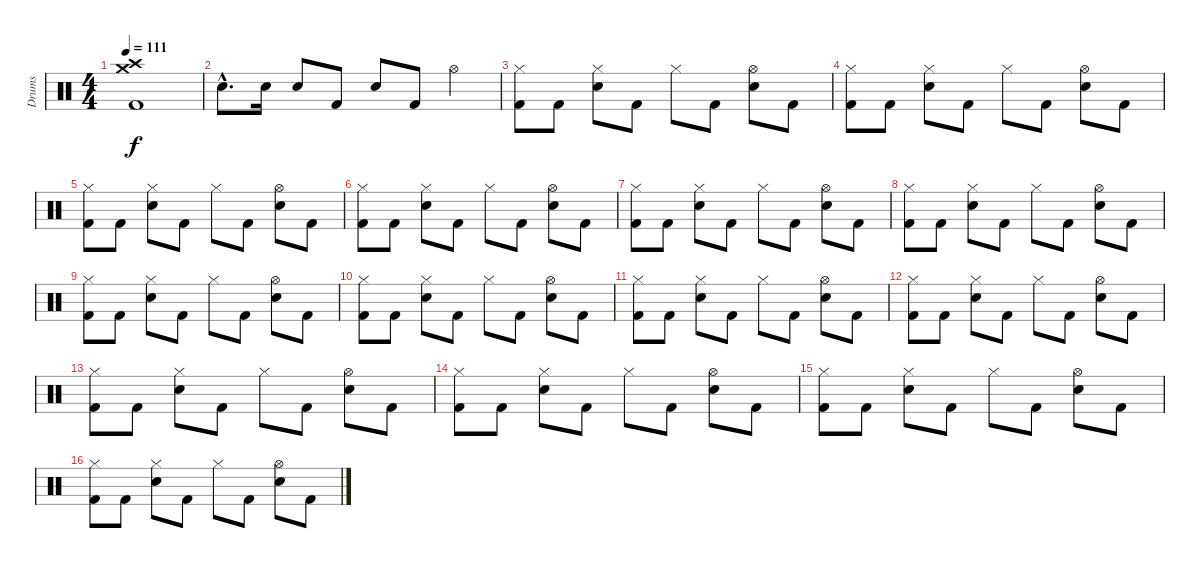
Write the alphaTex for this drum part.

\track ("Drums" "Drums") {instrument percussion}
\staff {score}
\articulation defaults
\ts (4 4)
\tempo 111
\clef neutral
\ks c
("Crash high (hit)" "Crash medium (hit)" "Kick (hit) 2").1{dy f} |
"Snare (hit) 2"{hac}.8{d} "Snare (hit) 2".16 "Snare (hit) 2".8 "Kick (hit) 2".8 "Snare (hit) 2".8 "Kick (hit) 2".8 "Hi-Hat (open)".4 |
("Hi-Hat (closed)" "Kick (hit) 2").8 "Kick (hit) 2".8 ("Hi-Hat (closed)" "Snare (hit) 2").8 "Kick (hit) 2".8 "Hi-Hat (closed)".8 "Kick (hit) 2".8 ("Hi-Hat (open)" "Snare (hit) 2").8 "Kick (hit) 2".8 |
("Hi-Hat (closed)" "Kick (hit) 2").8 "Kick (hit) 2".8 ("Hi-Hat (closed)" "Snare (hit) 2").8 "Kick (hit) 2".8 "Hi-Hat (closed)".8 "Kick (hit) 2".8 ("Hi-Hat (open)" "Snare (hit) 2").8 "Kick (hit) 2".8 |
("Hi-Hat (closed)" "Kick (hit) 2").8 "Kick (hit) 2".8 ("Hi-Hat (closed)" "Snare (hit) 2").8 "Kick (hit) 2".8 "Hi-Hat (closed)".8 "Kick (hit) 2".8 ("Hi-Hat (open)" "Snare (hit) 2").8 "Kick (hit) 2".8 |
("Hi-Hat (closed)" "Kick (hit) 2").8 "Kick (hit) 2".8 ("Hi-Hat (closed)" "Snare (hit) 2").8 "Kick (hit) 2".8 "Hi-Hat (closed)".8 "Kick (hit) 2".8 ("Hi-Hat (open)" "Snare (hit) 2").8 "Kick (hit) 2".8 |
("Hi-Hat (closed)" "Kick (hit) 2").8 "Kick (hit) 2".8 ("Hi-Hat (closed)" "Snare (hit) 2").8 "Kick (hit) 2".8 "Hi-Hat (closed)".8 "Kick (hit) 2".8 ("Hi-Hat (open)" "Snare (hit) 2").8 "Kick (hit) 2".8 |
("Hi-Hat (closed)" "Kick (hit) 2").8 "Kick (hit) 2".8 ("Hi-Hat (closed)" "Snare (hit) 2").8 "Kick (hit) 2".8 "Hi-Hat (closed)".8 "Kick (hit) 2".8 ("Hi-Hat (open)" "Snare (hit) 2").8 "Kick (hit) 2".8 |
("Hi-Hat (closed)" "Kick (hit) 2").8 "Kick (hit) 2".8 ("Hi-Hat (closed)" "Snare (hit) 2").8 "Kick (hit) 2".8 "Hi-Hat (closed)".8 "Kick (hit) 2".8 ("Hi-Hat (open)" "Snare (hit) 2").8 "Kick (hit) 2".8 |
("Hi-Hat (closed)" "Kick (hit) 2").8 "Kick (hit) 2".8 ("Hi-Hat (closed)" "Snare (hit) 2").8 "Kick (hit) 2".8 "Hi-Hat (closed)".8 "Kick (hit) 2".8 ("Hi-Hat (open)" "Snare (hit) 2").8 "Kick (hit) 2".8 |
("Hi-Hat (closed)" "Kick (hit) 2").8 "Kick (hit) 2".8 ("Hi-Hat (closed)" "Snare (hit) 2").8 "Kick (hit) 2".8 "Hi-Hat (closed)".8 "Kick (hit) 2".8 ("Hi-Hat (open)" "Snare (hit) 2").8 "Kick (hit) 2".8 |
("Hi-Hat (closed)" "Kick (hit) 2").8 "Kick (hit) 2".8 ("Hi-Hat (closed)" "Snare (hit) 2").8 "Kick (hit) 2".8 "Hi-Hat (closed)".8 "Kick (hit) 2".8 ("Hi-Hat (open)" "Snare (hit) 2").8 "Kick (hit) 2".8 |
("Hi-Hat (closed)" "Kick (hit) 2").8 "Kick (hit) 2".8 ("Hi-Hat (closed)" "Snare (hit) 2").8 "Kick (hit) 2".8 "Hi-Hat (closed)".8 "Kick (hit) 2".8 ("Hi-Hat (open)" "Snare (hit) 2").8 "Kick (hit) 2".8 |
("Hi-Hat (closed)" "Kick (hit) 2").8 "Kick (hit) 2".8 ("Hi-Hat (closed)" "Snare (hit) 2").8 "Kick (hit) 2".8 "Hi-Hat (closed)".8 "Kick (hit) 2".8 ("Hi-Hat (open)" "Snare (hit) 2").8 "Kick (hit) 2".8 |
("Hi-Hat (closed)" "Kick (hit) 2").8 "Kick (hit) 2".8 ("Hi-Hat (closed)" "Snare (hit) 2").8 "Kick (hit) 2".8 "Hi-Hat (closed)".8 "Kick (hit) 2".8 ("Hi-Hat (open)" "Snare (hit) 2").8 "Kick (hit) 2".8 |
("Hi-Hat (closed)" "Kick (hit) 2").8 "Kick (hit) 2".8 ("Hi-Hat (closed)" "Snare (hit) 2").8 "Kick (hit) 2".8 "Hi-Hat (closed)".8 "Kick (hit) 2".8 ("Hi-Hat (open)" "Snare (hit) 2").8 "Kick (hit) 2".8
